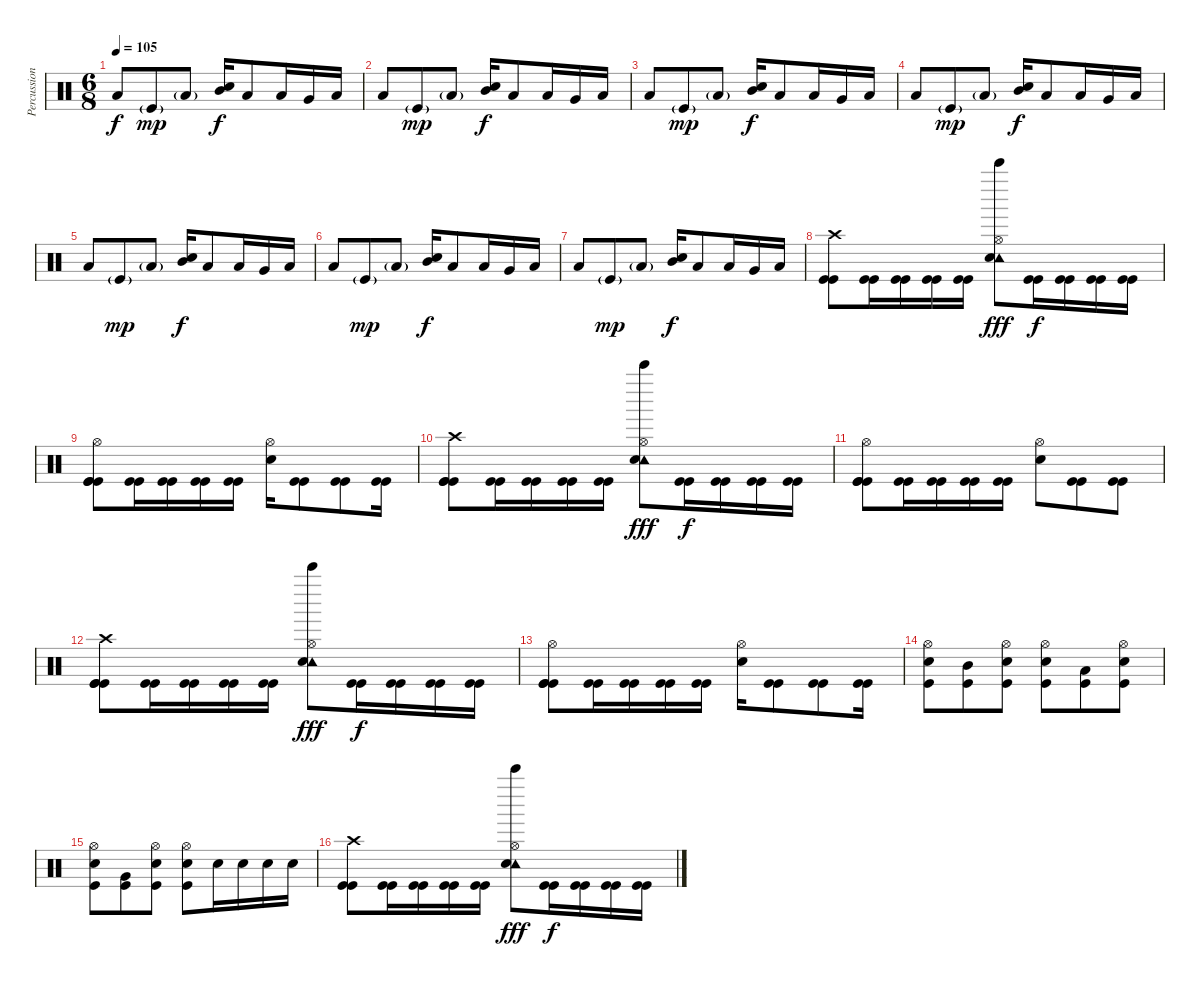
\track ("Percussions" "Percussion") {instrument percussion}
\staff {score}
\articulation defaults
\ts (6 8)
\tempo 105
\clef neutral
\ks c "Low Floor Tom (hit)".8{dy f} "Kick (hit)"{g}.8{dy mp} "Low Floor Tom (hit)"{g}.8
("Mid Tom (hit)" "Snare (hit) 2").16{dy f} "Low Tom (hit)".8 "Low Tom (hit)".16 "Very Low Tom (hit)".16 "Low Tom (hit)".16 |
"Low Floor Tom (hit)".8 "Kick (hit)"{g}.8{dy mp} "Low Floor Tom (hit)"{g}.8 ("Mid Tom (hit)" "Snare (hit) 2").16{dy f} "Low Tom (hit)".8 "Low Tom (hit)".16 "Very Low Tom (hit)".16 "Low Tom (hit)".16 |
"Low Floor Tom (hit)".8 "Kick (hit)"{g}.8{dy mp} "Low Floor Tom (hit)"{g}.8 ("Mid Tom (hit)" "Snare (hit) 2").16{dy f} "Low Tom (hit)".8 "Low Tom (hit)".16 "Very Low Tom (hit)".16 "Low Tom (hit)".16 |
"Low Floor Tom (hit)".8 "Kick (hit)"{g}.8{dy mp} "Low Floor Tom (hit)"{g}.8 ("Mid Tom (hit)" "Snare (hit) 2").16{dy f} "Low Tom (hit)".8 "Low Tom (hit)".16 "Very Low Tom (hit)".16 "Low Tom (hit)".16 |
"Low Floor Tom (hit)".8 "Kick (hit)"{g}.8{dy mp} "Low Floor Tom (hit)"{g}.8 ("Mid Tom (hit)" "Snare (hit) 2").16{dy f} "Low Tom (hit)".8 "Low Tom (hit)".16 "Very Low Tom (hit)".16 "Low Tom (hit)".16 |
"Low Floor Tom (hit)".8 "Kick (hit)"{g}.8{dy mp} "Low Floor Tom (hit)"{g}.8 ("Mid Tom (hit)" "Snare (hit) 2").16{dy f} "Low Tom (hit)".8 "Low Tom (hit)".16 "Very Low Tom (hit)".16 "Low Tom (hit)".16 |
"Low Floor Tom (hit)".8 "Kick (hit)"{g}.8{dy mp} "Low Floor Tom (hit)"{g}.8 ("Mid Tom (hit)" "Snare (hit) 2").16{dy f} "Low Tom (hit)".8 "Low Tom (hit)".16 "Very Low Tom (hit)".16 "Low Tom (hit)".16 |
("Kick (hit)" "Kick (hit)" "Crash high (hit)").8 ("Kick (hit)" "Kick (hit)").16 ("Kick (hit)" "Kick (hit)").16 ("Kick (hit)" "Kick (hit)").16 ("Kick (hit)" "Kick (hit)").16 ("Tambourine (hit)" "Bell Tree (hit)" "Snare (hit) 2" "Hi-Hat (open)").8{dy fff} ("Kick (hit)" "Kick (hit)").16{dy f} ("Kick (hit)" "Kick (hit)").16 ("Kick (hit)" "Kick (hit)").16 ("Kick (hit)" "Kick (hit)").16 |
("Kick (hit)" "Kick (hit)" "Kick (hit)" "Hi-Hat (open)").8 ("Kick (hit)" "Kick (hit)").16 ("Kick (hit)" "Kick (hit)").16 ("Kick (hit)" "Kick (hit)").16 ("Kick (hit)" "Kick (hit)").16 ("Snare (hit) 2" "Hi-Hat (open)").16 ("Kick (hit)" "Kick (hit)").8 ("Kick (hit)" "Kick (hit)").8 ("Kick (hit)" "Kick (hit)").16 |
("Kick (hit)" "Kick (hit)" "Kick (hit)" "Crash high (hit)").8 ("Kick (hit)" "Kick (hit)").16 ("Kick (hit)" "Kick (hit)").16 ("Kick (hit)" "Kick (hit)").16 ("Kick (hit)" "Kick (hit)").16 ("Tambourine (hit)" "Bell Tree (hit)" "Snare (hit) 2" "Hi-Hat (open)").8{dy fff} ("Kick (hit)" "Kick (hit)").16{dy f} ("Kick (hit)" "Kick (hit)").16 ("Kick (hit)" "Kick (hit)").16 ("Kick (hit)" "Kick (hit)").16 |
("Kick (hit)" "Kick (hit)" "Kick (hit)" "Hi-Hat (open)").8 ("Kick (hit)" "Kick (hit)").16 ("Kick (hit)" "Kick (hit)").16 ("Kick (hit)" "Kick (hit)").16 ("Kick (hit)" "Kick (hit)").16 ("Snare (hit) 2" "Hi-Hat (open)").8 ("Kick (hit)" "Kick (hit)").8 ("Kick (hit)" "Kick (hit)").8 |
("Kick (hit)" "Kick (hit)" "Kick (hit)" "Crash high (hit)").8 ("Kick (hit)" "Kick (hit)").16 ("Kick (hit)" "Kick (hit)").16 ("Kick (hit)" "Kick (hit)").16 ("Kick (hit)" "Kick (hit)").16 ("Bell Tree (hit)" "Tambourine (hit)" "Snare (hit) 2" "Hi-Hat (open)").8{dy fff} ("Kick (hit)" "Kick (hit)").16{dy f} ("Kick (hit)" "Kick (hit)").16 ("Kick (hit)" "Kick (hit)").16 ("Kick (hit)" "Kick (hit)").16 |
("Kick (hit)" "Kick (hit)" "Kick (hit)" "Hi-Hat (open)").8 ("Kick (hit)" "Kick (hit)").16 ("Kick (hit)" "Kick (hit)").16 ("Kick (hit)" "Kick (hit)").16 ("Kick (hit)" "Kick (hit)").16 ("Snare (hit) 2" "Hi-Hat (open)").16 ("Kick (hit)" "Kick (hit)").8 ("Kick (hit)" "Kick (hit)").8 ("Kick (hit)" "Kick (hit)").16 |
("Kick (hit)" "Snare (hit) 2" "Hi-Hat (open)").8 ("Kick (hit)" "Mid Tom (hit)").8 ("Kick (hit)" "Snare (hit) 2" "Hi-Hat (open)").8 ("Kick (hit)" "Snare (hit) 2" "Hi-Hat (open)").8 ("Kick (hit)" "Low Tom (hit)").8 ("Kick (hit)" "Snare (hit) 2" "Hi-Hat (open)").8 |
("Kick (hit)" "Snare (hit) 2" "Hi-Hat (open)").8 ("Kick (hit)" "Very Low Tom (hit)").8 ("Kick (hit)" "Snare (hit) 2" "Hi-Hat (open)").8 ("Kick (hit)" "Snare (hit) 2" "Hi-Hat (open)").8 "Snare (hit) 2".16 "Snare (hit) 2".16 "Snare (hit) 2".16 "Snare (hit) 2".16 |
("Kick (hit)" "Kick (hit)" "Crash high (hit)").8 ("Kick (hit)" "Kick (hit)").16 ("Kick (hit)" "Kick (hit)").16 ("Kick (hit)" "Kick (hit)").16 ("Kick (hit)" "Kick (hit)").16 ("Bell Tree (hit)" "Tambourine (hit)" "Snare (hit) 2" "Hi-Hat (open)").8{dy fff} ("Kick (hit)" "Kick (hit)").16{dy f} ("Kick (hit)" "Kick (hit)").16 ("Kick (hit)" "Kick (hit)").16 ("Kick (hit)" "Kick (hit)").16
